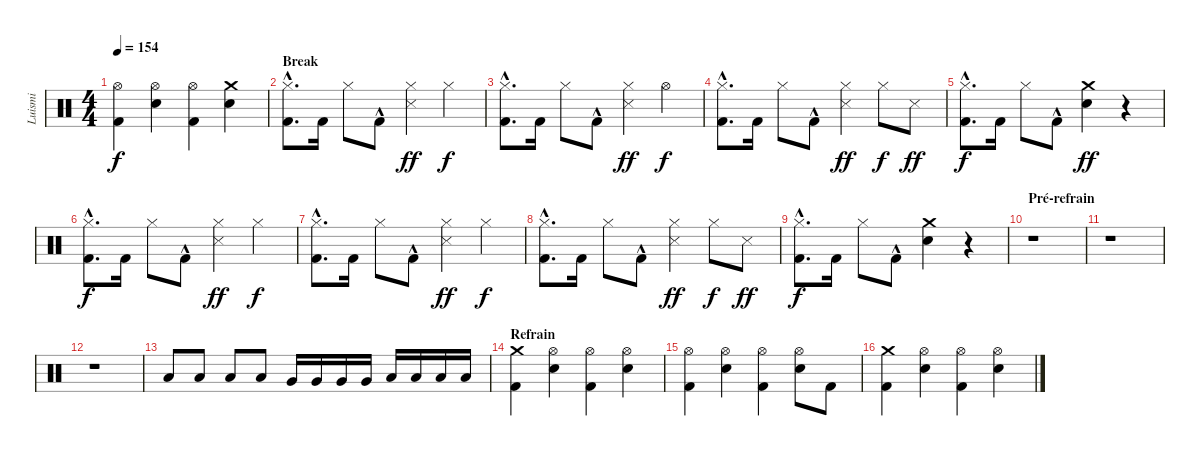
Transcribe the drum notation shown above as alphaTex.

\track ("Luismi" "Luismi") {instrument percussion}
\staff {score}
\articulation defaults
\ts (4 4)
\tempo 154
\clef neutral
\ks c
("Hi-Hat (open)" "Kick (hit) 2").4{dy f} ("Hi-Hat (open)" "Snare (hit) 2").4 ("Hi-Hat (open)" "Kick (hit) 2").4 ("Crash medium (hit)" "Snare (hit) 2").4 |
\section ("" "Break")
("Hi-Hat (closed)"{hac} "Kick (hit) 2"{hac}).8{d} "Kick (hit) 2".16 "Hi-Hat (closed)".8 "Kick (hit) 2"{hac}.8 ("Hi-Hat (closed)" "Snare (side stick) 3").4{dy ff} "Hi-Hat (closed)".4{dy f} |
("Hi-Hat (closed)"{hac} "Kick (hit) 2"{hac}).8{d} "Kick (hit) 2".16 "Hi-Hat (closed)".8 "Kick (hit) 2"{hac}.8 ("Hi-Hat (closed)" "Snare (side stick) 3").4{dy ff} "Hi-Hat (open)".4{dy f} |
("Hi-Hat (closed)"{hac} "Kick (hit) 2"{hac}).8{d} "Kick (hit) 2".16 "Hi-Hat (closed)".8 "Kick (hit) 2"{hac}.8 ("Hi-Hat (closed)" "Snare (side stick) 3").4{dy ff} "Hi-Hat (closed)".8{dy f} "Snare (side stick) 3".8{dy ff} |
("Hi-Hat (closed)"{hac} "Kick (hit) 2"{hac}).8{d dy f} "Kick (hit) 2".16 "Hi-Hat (closed)".8 "Kick (hit) 2"{hac}.8 ("Crash medium (hit)" "Snare (hit) 2").4{dy ff} r.4 |
("Hi-Hat (closed)"{hac} "Kick (hit) 2"{hac}).8{d dy f} "Kick (hit) 2".16 "Hi-Hat (closed)".8 "Kick (hit) 2"{hac}.8 ("Hi-Hat (closed)" "Snare (side stick) 3").4{dy ff} "Hi-Hat (closed)".4{dy f} |
("Hi-Hat (closed)"{hac} "Kick (hit) 2"{hac}).8{d} "Kick (hit) 2".16 "Hi-Hat (closed)".8 "Kick (hit) 2"{hac}.8 ("Hi-Hat (closed)" "Snare (side stick) 3").4{dy ff} "Hi-Hat (closed)".4{dy f} |
("Hi-Hat (closed)"{hac} "Kick (hit) 2"{hac}).8{d} "Kick (hit) 2".16 "Hi-Hat (closed)".8 "Kick (hit) 2"{hac}.8 ("Hi-Hat (closed)" "Snare (side stick) 3").4{dy ff} "Hi-Hat (closed)".8{dy f} "Snare (side stick) 3".8{dy ff} |
("Hi-Hat (closed)"{hac} "Kick (hit) 2"{hac}).8{d dy f} "Kick (hit) 2".16 "Hi-Hat (closed)".8 "Kick (hit) 2"{hac}.8 ("Crash medium (hit)" "Snare (hit) 2").4 r.4 |
\section ("" "Pré-refrain")
r.1 |
r.1 |
r.1 |
"Low Tom (hit)".8 "Low Tom (hit)".8 "Low Tom (hit)".8 "Low Tom (hit)".8 "Very Low Tom (hit)".16 "Very Low Tom (hit)".16 "Very Low Tom (hit)".16 "Very Low Tom (hit)".16 "Low Floor Tom (hit)".16 "Low Floor Tom (hit)".16 "Low Floor Tom (hit)".16 "Low Floor Tom (hit)".16 |
\section ("" "Refrain")
("Crash medium (hit)" "Kick (hit) 2").4 ("Hi-Hat (open)" "Snare (hit) 2").4 ("Hi-Hat (open)" "Kick (hit) 2").4 ("Hi-Hat (open)" "Snare (hit) 2").4 |
("Hi-Hat (open)" "Kick (hit) 2").4 ("Hi-Hat (open)" "Snare (hit) 2").4 ("Hi-Hat (open)" "Kick (hit) 2").4 ("Hi-Hat (open)" "Snare (hit) 2").8 "Kick (hit) 2".8 |
("Crash medium (hit)" "Kick (hit) 2").4 ("Hi-Hat (open)" "Snare (hit) 2").4 ("Hi-Hat (open)" "Kick (hit) 2").4 ("Hi-Hat (open)" "Snare (hit) 2").4
